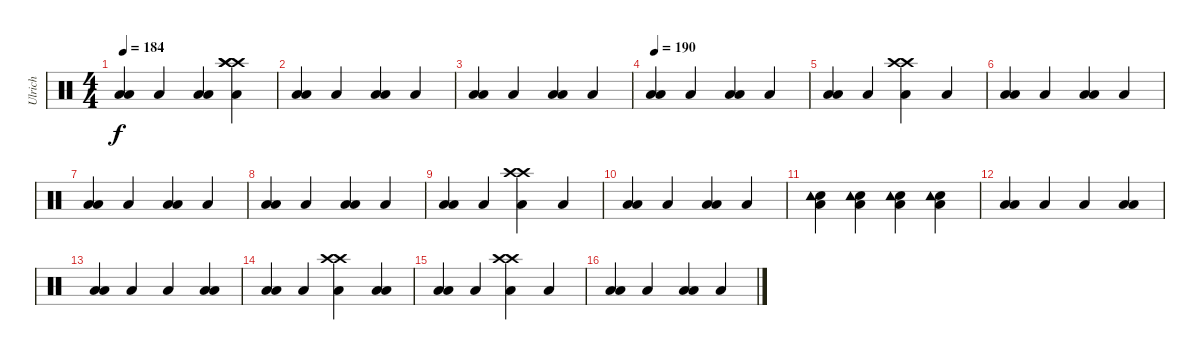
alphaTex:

\track ("Ulrich" "Ulrich") {instrument percussion}
\staff {score}
\articulation defaults
\ts (4 4)
\tempo 184
\clef neutral
\ks c
("Low Tom (hit)" "Low Tom (hit)").4{dy f} "Low Tom (hit)".4 ("Low Tom (hit)" "Low Tom (hit)").4 ("Low Tom (hit)" "Crash high (hit)" "Crash high (hit)" "Crash high (hit)").4 |
("Low Tom (hit)" "Low Tom (hit)").4 "Low Tom (hit)".4 ("Low Tom (hit)" "Low Tom (hit)").4 "Low Tom (hit)".4 |
("Low Tom (hit)" "Low Tom (hit)").4 "Low Tom (hit)".4 ("Low Tom (hit)" "Low Tom (hit)").4 "Low Tom (hit)".4 |
\tempo 190
("Low Tom (hit)" "Low Tom (hit)").4 "Low Tom (hit)".4 ("Low Tom (hit)" "Low Tom (hit)").4 "Low Tom (hit)".4 |
("Low Tom (hit)" "Low Tom (hit)").4 "Low Tom (hit)".4 ("Low Tom (hit)" "Crash high (hit)" "Crash high (hit)").4 "Low Tom (hit)".4 |
("Low Tom (hit)" "Low Tom (hit)").4 "Low Tom (hit)".4 ("Low Tom (hit)" "Low Tom (hit)").4 "Low Tom (hit)".4 |
("Low Tom (hit)" "Low Tom (hit)").4 "Low Tom (hit)".4 ("Low Tom (hit)" "Low Tom (hit)").4 "Low Tom (hit)".4 |
("Low Tom (hit)" "Low Tom (hit)").4 "Low Tom (hit)".4 ("Low Tom (hit)" "Low Tom (hit)").4 "Low Tom (hit)".4 |
("Low Tom (hit)" "Low Tom (hit)").4 "Low Tom (hit)".4 ("Low Tom (hit)" "Crash high (hit)" "Crash high (hit)").4 "Low Tom (hit)".4 |
("Low Tom (hit)" "Low Tom (hit)").4 "Low Tom (hit)".4 ("Low Tom (hit)" "Low Tom (hit)").4 "Low Tom (hit)".4 |
("Low Tom (hit)" "Snare (hit)" "Tambourine (hit)").4 ("Low Tom (hit)" "Snare (hit)" "Tambourine (hit)").4 ("Low Tom (hit)" "Snare (hit)" "Tambourine (hit)").4 ("Low Tom (hit)" "Snare (hit)" "Tambourine (hit)").4 |
("Low Tom (hit)" "Low Tom (hit)").4 "Low Tom (hit)".4 "Low Tom (hit)".4 ("Low Tom (hit)" "Low Tom (hit)").4 |
("Low Tom (hit)" "Low Tom (hit)").4 "Low Tom (hit)".4 "Low Tom (hit)".4 ("Low Tom (hit)" "Low Tom (hit)").4 |
("Low Tom (hit)" "Low Tom (hit)").4 "Low Tom (hit)".4 ("Low Tom (hit)" "Crash high (hit)" "Crash high (hit)").4 ("Low Tom (hit)" "Low Tom (hit)").4 |
("Low Tom (hit)" "Low Tom (hit)").4 "Low Tom (hit)".4 ("Low Tom (hit)" "Crash high (hit)" "Crash high (hit)").4 "Low Tom (hit)".4 |
("Low Tom (hit)" "Low Tom (hit)").4 "Low Tom (hit)".4 ("Low Tom (hit)" "Low Tom (hit)").4 "Low Tom (hit)".4
